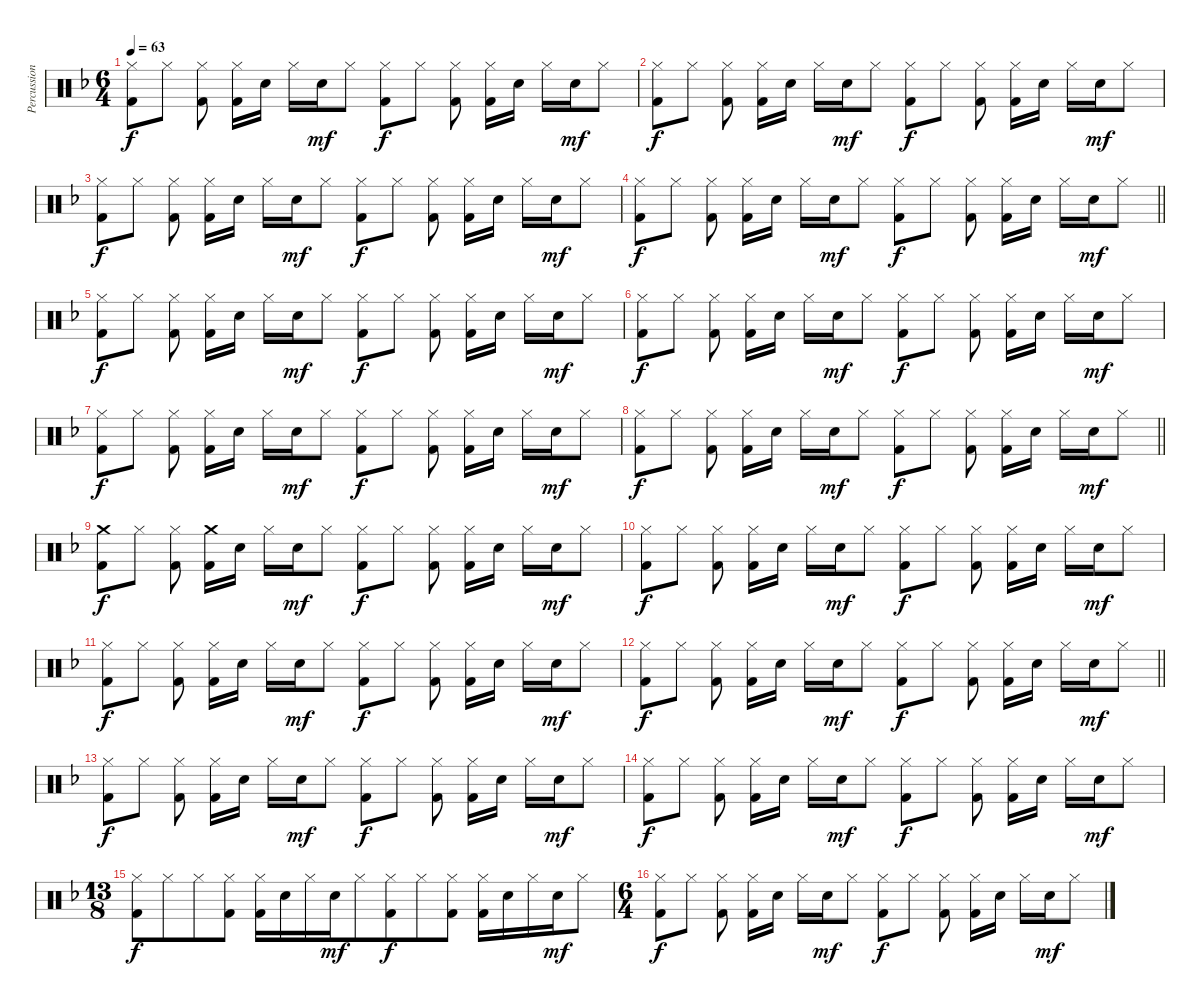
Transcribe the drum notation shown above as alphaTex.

\track ("Percussion" "Percussion") {instrument percussion}
\staff {score}
\articulation defaults
\ts (6 4)
\tempo 63
\clef neutral
\ks f
("Hi-Hat (closed)" "Kick (hit) 2").8{dy f} "Hi-Hat (closed)".8 ("Hi-Hat (closed)" "Kick (hit) 2").8{beam split} ("Hi-Hat (closed)" "Kick (hit) 2").16 "Electric Snare (hit)".16 "Hi-Hat (closed)".16 "Electric Snare (hit)".16{dy mf} "Hi-Hat (closed)".8 ("Hi-Hat (closed)" "Kick (hit) 2").8{dy f} "Hi-Hat (closed)".8 ("Hi-Hat (closed)" "Kick (hit) 2").8{beam split} ("Hi-Hat (closed)" "Kick (hit) 2").16 "Electric Snare (hit)".16 "Hi-Hat (closed)".16 "Electric Snare (hit)".16{dy mf} "Hi-Hat (closed)".8 |
("Hi-Hat (closed)" "Kick (hit) 2").8{dy f} "Hi-Hat (closed)".8 ("Hi-Hat (closed)" "Kick (hit) 2").8{beam split} ("Hi-Hat (closed)" "Kick (hit) 2").16 "Electric Snare (hit)".16 "Hi-Hat (closed)".16 "Electric Snare (hit)".16{dy mf} "Hi-Hat (closed)".8 ("Hi-Hat (closed)" "Kick (hit) 2").8{dy f} "Hi-Hat (closed)".8 ("Hi-Hat (closed)" "Kick (hit) 2").8{beam split} ("Hi-Hat (closed)" "Kick (hit) 2").16 "Electric Snare (hit)".16 "Hi-Hat (closed)".16 "Electric Snare (hit)".16{dy mf} "Hi-Hat (closed)".8 |
("Hi-Hat (closed)" "Kick (hit) 2").8{dy f} "Hi-Hat (closed)".8 ("Hi-Hat (closed)" "Kick (hit) 2").8{beam split} ("Hi-Hat (closed)" "Kick (hit) 2").16 "Electric Snare (hit)".16 "Hi-Hat (closed)".16 "Electric Snare (hit)".16{dy mf} "Hi-Hat (closed)".8 ("Hi-Hat (closed)" "Kick (hit) 2").8{dy f} "Hi-Hat (closed)".8 ("Hi-Hat (closed)" "Kick (hit) 2").8{beam split} ("Hi-Hat (closed)" "Kick (hit) 2").16 "Electric Snare (hit)".16 "Hi-Hat (closed)".16 "Electric Snare (hit)".16{dy mf} "Hi-Hat (closed)".8 |
\barLineRight lightlight
("Hi-Hat (closed)" "Kick (hit) 2").8{dy f} "Hi-Hat (closed)".8 ("Hi-Hat (closed)" "Kick (hit) 2").8{beam split} ("Hi-Hat (closed)" "Kick (hit) 2").16 "Electric Snare (hit)".16 "Hi-Hat (closed)".16 "Electric Snare (hit)".16{dy mf} "Hi-Hat (closed)".8 ("Hi-Hat (closed)" "Kick (hit) 2").8{dy f} "Hi-Hat (closed)".8 ("Hi-Hat (closed)" "Kick (hit) 2").8{beam split} ("Hi-Hat (closed)" "Kick (hit) 2").16 "Electric Snare (hit)".16 "Hi-Hat (closed)".16 "Electric Snare (hit)".16{dy mf} "Hi-Hat (closed)".8 |
("Hi-Hat (closed)" "Kick (hit) 2").8{dy f} "Hi-Hat (closed)".8 ("Hi-Hat (closed)" "Kick (hit) 2").8{beam split} ("Hi-Hat (closed)" "Kick (hit) 2").16 "Electric Snare (hit)".16 "Hi-Hat (closed)".16 "Electric Snare (hit)".16{dy mf} "Hi-Hat (closed)".8 ("Hi-Hat (closed)" "Kick (hit) 2").8{dy f} "Hi-Hat (closed)".8 ("Hi-Hat (closed)" "Kick (hit) 2").8{beam split} ("Hi-Hat (closed)" "Kick (hit) 2").16 "Electric Snare (hit)".16 "Hi-Hat (closed)".16 "Electric Snare (hit)".16{dy mf} "Hi-Hat (closed)".8 |
("Hi-Hat (closed)" "Kick (hit) 2").8{dy f} "Hi-Hat (closed)".8 ("Hi-Hat (closed)" "Kick (hit) 2").8{beam split} ("Hi-Hat (closed)" "Kick (hit) 2").16 "Electric Snare (hit)".16 "Hi-Hat (closed)".16 "Electric Snare (hit)".16{dy mf} "Hi-Hat (closed)".8 ("Hi-Hat (closed)" "Kick (hit) 2").8{dy f} "Hi-Hat (closed)".8 ("Hi-Hat (closed)" "Kick (hit) 2").8{beam split} ("Hi-Hat (closed)" "Kick (hit) 2").16 "Electric Snare (hit)".16 "Hi-Hat (closed)".16 "Electric Snare (hit)".16{dy mf} "Hi-Hat (closed)".8 |
("Hi-Hat (closed)" "Kick (hit) 2").8{dy f} "Hi-Hat (closed)".8 ("Hi-Hat (closed)" "Kick (hit) 2").8{beam split} ("Hi-Hat (closed)" "Kick (hit) 2").16 "Electric Snare (hit)".16 "Hi-Hat (closed)".16 "Electric Snare (hit)".16{dy mf} "Hi-Hat (closed)".8 ("Hi-Hat (closed)" "Kick (hit) 2").8{dy f} "Hi-Hat (closed)".8 ("Hi-Hat (closed)" "Kick (hit) 2").8{beam split} ("Hi-Hat (closed)" "Kick (hit) 2").16 "Electric Snare (hit)".16 "Hi-Hat (closed)".16 "Electric Snare (hit)".16{dy mf} "Hi-Hat (closed)".8 |
\barLineRight lightlight
("Hi-Hat (closed)" "Kick (hit) 2").8{dy f} "Hi-Hat (closed)".8 ("Hi-Hat (closed)" "Kick (hit) 2").8{beam split} ("Hi-Hat (closed)" "Kick (hit) 2").16 "Electric Snare (hit)".16 "Hi-Hat (closed)".16 "Electric Snare (hit)".16{dy mf} "Hi-Hat (closed)".8 ("Hi-Hat (closed)" "Kick (hit) 2").8{dy f} "Hi-Hat (closed)".8 ("Hi-Hat (closed)" "Kick (hit) 2").8{beam split} ("Hi-Hat (closed)" "Kick (hit) 2").16 "Electric Snare (hit)".16 "Hi-Hat (closed)".16 "Electric Snare (hit)".16{dy mf} "Hi-Hat (closed)".8 |
("Crash medium (hit)" "Kick (hit) 2").8{dy f} "Hi-Hat (closed)".8 ("Hi-Hat (closed)" "Kick (hit) 2").8{beam split} ("Crash medium (hit)" "Kick (hit) 2").16 "Electric Snare (hit)".16 "Hi-Hat (closed)".16 "Electric Snare (hit)".16{dy mf} "Hi-Hat (closed)".8 ("Hi-Hat (closed)" "Kick (hit) 2").8{dy f} "Hi-Hat (closed)".8 ("Hi-Hat (closed)" "Kick (hit) 2").8{beam split} ("Hi-Hat (closed)" "Kick (hit) 2").16 "Electric Snare (hit)".16 "Hi-Hat (closed)".16 "Electric Snare (hit)".16{dy mf} "Hi-Hat (closed)".8 |
("Hi-Hat (closed)" "Kick (hit) 2").8{dy f} "Hi-Hat (closed)".8 ("Hi-Hat (closed)" "Kick (hit) 2").8{beam split} ("Hi-Hat (closed)" "Kick (hit) 2").16 "Electric Snare (hit)".16 "Hi-Hat (closed)".16 "Electric Snare (hit)".16{dy mf} "Hi-Hat (closed)".8 ("Hi-Hat (closed)" "Kick (hit) 2").8{dy f} "Hi-Hat (closed)".8 ("Hi-Hat (closed)" "Kick (hit) 2").8{beam split} ("Hi-Hat (closed)" "Kick (hit) 2").16 "Electric Snare (hit)".16 "Hi-Hat (closed)".16 "Electric Snare (hit)".16{dy mf} "Hi-Hat (closed)".8 |
("Hi-Hat (closed)" "Kick (hit) 2").8{dy f} "Hi-Hat (closed)".8 ("Hi-Hat (closed)" "Kick (hit) 2").8{beam split} ("Hi-Hat (closed)" "Kick (hit) 2").16 "Electric Snare (hit)".16 "Hi-Hat (closed)".16 "Electric Snare (hit)".16{dy mf} "Hi-Hat (closed)".8 ("Hi-Hat (closed)" "Kick (hit) 2").8{dy f} "Hi-Hat (closed)".8 ("Hi-Hat (closed)" "Kick (hit) 2").8{beam split} ("Hi-Hat (closed)" "Kick (hit) 2").16 "Electric Snare (hit)".16 "Hi-Hat (closed)".16 "Electric Snare (hit)".16{dy mf} "Hi-Hat (closed)".8 |
\barLineRight lightlight
("Hi-Hat (closed)" "Kick (hit) 2").8{dy f} "Hi-Hat (closed)".8 ("Hi-Hat (closed)" "Kick (hit) 2").8{beam split} ("Hi-Hat (closed)" "Kick (hit) 2").16 "Electric Snare (hit)".16 "Hi-Hat (closed)".16 "Electric Snare (hit)".16{dy mf} "Hi-Hat (closed)".8 ("Hi-Hat (closed)" "Kick (hit) 2").8{dy f} "Hi-Hat (closed)".8 ("Hi-Hat (closed)" "Kick (hit) 2").8{beam split} ("Hi-Hat (closed)" "Kick (hit) 2").16 "Electric Snare (hit)".16 "Hi-Hat (closed)".16 "Electric Snare (hit)".16{dy mf} "Hi-Hat (closed)".8 |
("Hi-Hat (closed)" "Kick (hit) 2").8{dy f} "Hi-Hat (closed)".8 ("Hi-Hat (closed)" "Kick (hit) 2").8{beam split} ("Hi-Hat (closed)" "Kick (hit) 2").16 "Electric Snare (hit)".16 "Hi-Hat (closed)".16 "Electric Snare (hit)".16{dy mf} "Hi-Hat (closed)".8 ("Hi-Hat (closed)" "Kick (hit) 2").8{dy f} "Hi-Hat (closed)".8 ("Hi-Hat (closed)" "Kick (hit) 2").8{beam split} ("Hi-Hat (closed)" "Kick (hit) 2").16 "Electric Snare (hit)".16 "Hi-Hat (closed)".16 "Electric Snare (hit)".16{dy mf} "Hi-Hat (closed)".8 |
("Hi-Hat (closed)" "Kick (hit) 2").8{dy f} "Hi-Hat (closed)".8 ("Hi-Hat (closed)" "Kick (hit) 2").8{beam split} ("Hi-Hat (closed)" "Kick (hit) 2").16 "Electric Snare (hit)".16 "Hi-Hat (closed)".16 "Electric Snare (hit)".16{dy mf} "Hi-Hat (closed)".8 ("Hi-Hat (closed)" "Kick (hit) 2").8{dy f} "Hi-Hat (closed)".8 ("Hi-Hat (closed)" "Kick (hit) 2").8{beam split} ("Hi-Hat (closed)" "Kick (hit) 2").16 "Electric Snare (hit)".16 "Hi-Hat (closed)".16 "Electric Snare (hit)".16{dy mf} "Hi-Hat (closed)".8 |
\ts (13 8)
("Hi-Hat (closed)" "Kick (hit) 2").8{dy f beam merge} "Hi-Hat (closed)".8{beam merge} "Hi-Hat (closed)".8{beam merge} ("Hi-Hat (closed)" "Kick (hit) 2").8{beam split} ("Hi-Hat (closed)" "Kick (hit) 2").16 "Electric Snare (hit)".16{beam merge} "Hi-Hat (closed)".16 "Electric Snare (hit)".16{dy mf beam merge} "Hi-Hat (closed)".8 ("Hi-Hat (closed)" "Kick (hit) 2").8{dy f beam merge} "Hi-Hat (closed)".8{beam merge} ("Hi-Hat (closed)" "Kick (hit) 2").8{beam split} ("Hi-Hat (closed)" "Kick (hit) 2").16 "Electric Snare (hit)".16{beam merge} "Hi-Hat (closed)".16 "Electric Snare (hit)".16{dy mf beam merge} "Hi-Hat (closed)".8 |
\ts (6 4)
("Hi-Hat (closed)" "Kick (hit) 2").8{dy f} "Hi-Hat (closed)".8 ("Hi-Hat (closed)" "Kick (hit) 2").8{beam split} ("Hi-Hat (closed)" "Kick (hit) 2").16 "Electric Snare (hit)".16 "Hi-Hat (closed)".16 "Electric Snare (hit)".16{dy mf} "Hi-Hat (closed)".8 ("Hi-Hat (closed)" "Kick (hit) 2").8{dy f} "Hi-Hat (closed)".8 ("Hi-Hat (closed)" "Kick (hit) 2").8{beam split} ("Hi-Hat (closed)" "Kick (hit) 2").16 "Electric Snare (hit)".16 "Hi-Hat (closed)".16 "Electric Snare (hit)".16{dy mf} "Hi-Hat (closed)".8
